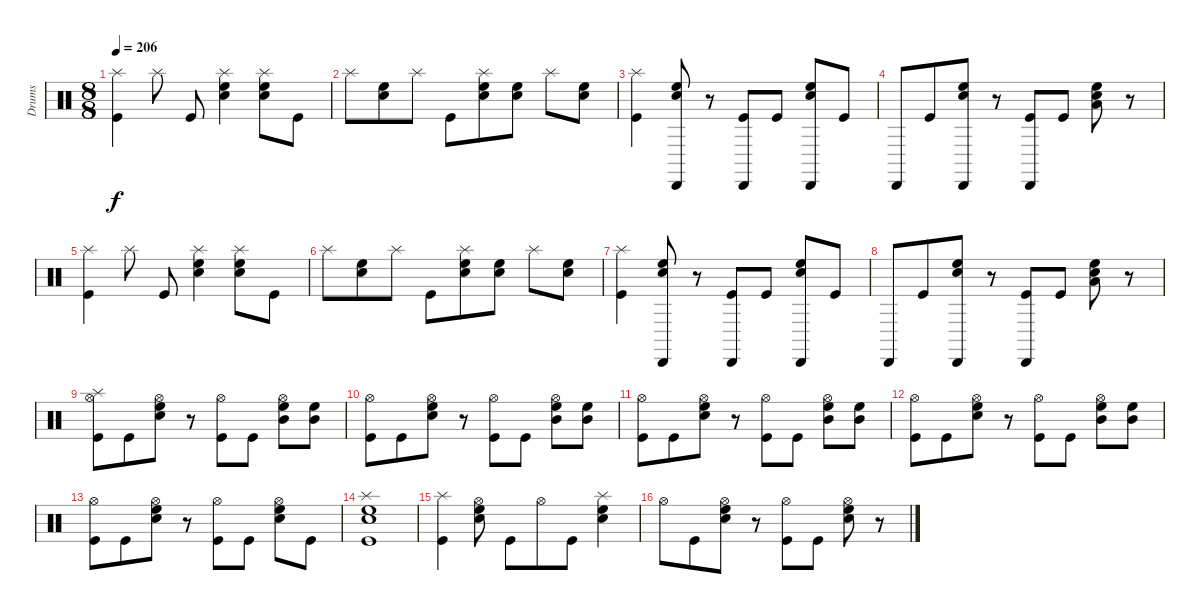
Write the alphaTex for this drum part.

\track ("Drums" "Drums") {instrument percussion}
\staff {score}
\articulation defaults
\ts (8 8)
\tempo 206
\clef neutral
\ks c
("Splash (hit)" "Kick (hit)").4{dy f} "Splash (hit)".8 "Kick (hit)".8 ("Splash (hit)" "High Floor Tom (hit)" "Electric Snare (hit)").4 ("Splash (hit)" "Electric Snare (hit)" "High Floor Tom (hit)").8 "Kick (hit)".8 |
"Splash (hit)".8 ("High Floor Tom (hit)" "Electric Snare (hit)").8 "Splash (hit)".8 "Kick (hit)".8 ("Splash (hit)" "High Floor Tom (hit)" "Electric Snare (hit)").8 ("High Floor Tom (hit)" "Electric Snare (hit)").8 "Splash (hit)".8 ("High Floor Tom (hit)" "Electric Snare (hit)").8 |
("Splash (hit)" "Kick (hit)").4 ("Cabasa (hit)" "High Floor Tom (hit)" "Electric Snare (hit)").8 r.8 ("Cabasa (hit)" "Kick (hit)").8 "Kick (hit)".8 ("Cabasa (hit)" "High Floor Tom (hit)" "Electric Snare (hit)").8 "Kick (hit)".8 |
"Cabasa (hit)".8 "Kick (hit)".8 ("Cabasa (hit)" "High Floor Tom (hit)" "Electric Snare (hit)").8 r.8 ("Cabasa (hit)" "Kick (hit)").8 "Kick (hit)".8 ("Low Tom (hit)" "High Floor Tom (hit)" "Electric Snare (hit)").8 r.8 |
("Splash (hit)" "Kick (hit)").4 "Splash (hit)".8 "Kick (hit)".8 ("Splash (hit)" "High Floor Tom (hit)" "Electric Snare (hit)").4 ("Splash (hit)" "Electric Snare (hit)" "High Floor Tom (hit)").8 "Kick (hit)".8 |
"Splash (hit)".8 ("High Floor Tom (hit)" "Electric Snare (hit)").8 "Splash (hit)".8 "Kick (hit)".8 ("Splash (hit)" "High Floor Tom (hit)" "Electric Snare (hit)").8 ("High Floor Tom (hit)" "Electric Snare (hit)").8 "Splash (hit)".8 ("High Floor Tom (hit)" "Electric Snare (hit)").8 |
("Splash (hit)" "Kick (hit)").4 ("Cabasa (hit)" "High Floor Tom (hit)" "Electric Snare (hit)").8 r.8 ("Cabasa (hit)" "Kick (hit)").8 "Kick (hit)".8 ("Cabasa (hit)" "High Floor Tom (hit)" "Electric Snare (hit)").8 "Kick (hit)".8 |
"Cabasa (hit)".8 "Kick (hit)".8 ("Cabasa (hit)" "High Floor Tom (hit)" "Electric Snare (hit)").8 r.8 ("Cabasa (hit)" "Kick (hit)").8 "Kick (hit)".8 ("Low Tom (hit)" "High Floor Tom (hit)" "Electric Snare (hit)").8 r.8 |
("Splash (hit)" "Hi-Hat (open)" "Kick (hit)").8 "Kick (hit)".8 ("Hi-Hat (open)" "High Floor Tom (hit)" "Electric Snare (hit)").8 r.8 ("Hi-Hat (open)" "Kick (hit)").8 "Kick (hit)".8 ("Hi-Hat (open)" "Mid Tom (hit)" "High Floor Tom (hit)").8 ("Mid Tom (hit)" "High Floor Tom (hit)").8 |
("Hi-Hat (open)" "Kick (hit)").8 "Kick (hit)".8 ("Hi-Hat (open)" "High Floor Tom (hit)" "Electric Snare (hit)").8 r.8 ("Hi-Hat (open)" "Kick (hit)").8 "Kick (hit)".8 ("Hi-Hat (open)" "Mid Tom (hit)" "High Floor Tom (hit)").8 ("Mid Tom (hit)" "High Floor Tom (hit)").8 |
("Hi-Hat (open)" "Kick (hit)").8 "Kick (hit)".8 ("Hi-Hat (open)" "High Floor Tom (hit)" "Electric Snare (hit)").8 r.8 ("Hi-Hat (open)" "Kick (hit)").8 "Kick (hit)".8 ("Hi-Hat (open)" "Mid Tom (hit)" "High Floor Tom (hit)").8 ("Mid Tom (hit)" "High Floor Tom (hit)").8 |
("Hi-Hat (open)" "Kick (hit)").8 "Kick (hit)".8 ("Hi-Hat (open)" "High Floor Tom (hit)" "Electric Snare (hit)").8 r.8 ("Hi-Hat (open)" "Kick (hit)").8 "Kick (hit)".8 ("Hi-Hat (open)" "Mid Tom (hit)" "High Floor Tom (hit)").8 ("Mid Tom (hit)" "High Floor Tom (hit)").8 |
("Hi-Hat (open)" "Kick (hit)").8 "Kick (hit)".8 ("Hi-Hat (open)" "High Floor Tom (hit)" "Electric Snare (hit)").8 r.8 ("Hi-Hat (open)" "Kick (hit)").8 "Kick (hit)".8 ("High Floor Tom (hit)" "Electric Snare (hit)" "Hi-Hat (open)").8 "Kick (hit)".8 |
("Splash (hit)" "High Floor Tom (hit)" "Electric Snare (hit)" "Kick (hit)").1 |
("Splash (hit)" "Kick (hit)").4 ("Hi-Hat (open)" "High Floor Tom (hit)" "Electric Snare (hit)").8 "Kick (hit)".8 "Hi-Hat (open)".8 "Kick (hit)".8 ("Splash (hit)" "High Floor Tom (hit)" "Electric Snare (hit)").4 |
"Hi-Hat (open)".8 "Kick (hit)".8 ("Hi-Hat (open)" "High Floor Tom (hit)" "Electric Snare (hit)").8 r.8 ("Hi-Hat (open)" "Kick (hit)").8 "Kick (hit)".8 ("Hi-Hat (open)" "High Floor Tom (hit)" "Electric Snare (hit)").8 r.8
